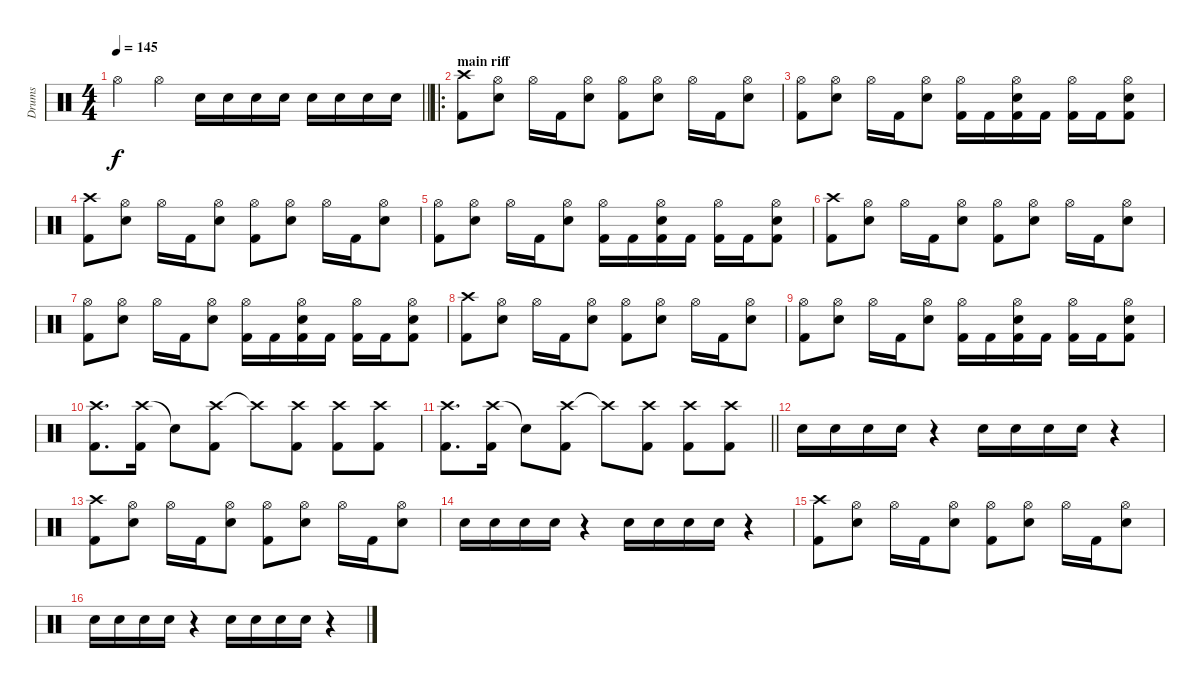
\track ("Drums" "Drums") {instrument percussion}
\staff {score}
\articulation defaults
\ts (4 4)
\tempo 145
\clef neutral
\barLineRight lightlight
\ks c "Hi-Hat (open)".4{dy f} "Hi-Hat (open)".4 "Snare (hit) 2".16 "Snare (hit) 2".16 "Snare (hit) 2".16 "Snare (hit) 2".16 "Snare (hit) 2".16 "Snare (hit) 2".16 "Snare (hit) 2".16 "Snare (hit) 2".16
|
\ro
\section ("" "main riff")
("Crash high (hit)" "Kick (hit) 2").8 ("Hi-Hat (open)" "Snare (hit) 2").8 "Hi-Hat (open)".16 "Kick (hit) 2".16 ("Hi-Hat (open)" "Snare (hit) 2").8 ("Hi-Hat (open)" "Kick (hit) 2").8 ("Hi-Hat (open)" "Snare (hit) 2").8 "Hi-Hat (open)".16 "Kick (hit) 2".16 ("Hi-Hat (open)" "Snare (hit) 2").8 |
("Hi-Hat (open)" "Kick (hit) 2").8 ("Hi-Hat (open)" "Snare (hit) 2").8 "Hi-Hat (open)".16 "Kick (hit) 2".16 ("Hi-Hat (open)" "Snare (hit) 2").8 ("Hi-Hat (open)" "Kick (hit) 2").16 "Kick (hit) 2".16 ("Hi-Hat (open)" "Snare (hit) 2" "Kick (hit) 2").16 "Kick (hit) 2".16 ("Hi-Hat (open)" "Kick (hit) 2").16 "Kick (hit) 2".16 ("Hi-Hat (open)" "Snare (hit) 2" "Kick (hit) 2").8 |
("Crash high (hit)" "Kick (hit) 2").8 ("Hi-Hat (open)" "Snare (hit) 2").8 "Hi-Hat (open)".16 "Kick (hit) 2".16 ("Hi-Hat (open)" "Snare (hit) 2").8 ("Hi-Hat (open)" "Kick (hit) 2").8 ("Hi-Hat (open)" "Snare (hit) 2").8 "Hi-Hat (open)".16 "Kick (hit) 2".16 ("Hi-Hat (open)" "Snare (hit) 2").8 |
("Hi-Hat (open)" "Kick (hit) 2").8 ("Hi-Hat (open)" "Snare (hit) 2").8 "Hi-Hat (open)".16 "Kick (hit) 2".16 ("Hi-Hat (open)" "Snare (hit) 2").8 ("Hi-Hat (open)" "Kick (hit) 2").16 "Kick (hit) 2".16 ("Hi-Hat (open)" "Snare (hit) 2" "Kick (hit) 2").16 "Kick (hit) 2".16 ("Hi-Hat (open)" "Kick (hit) 2").16 "Kick (hit) 2".16 ("Hi-Hat (open)" "Snare (hit) 2" "Kick (hit) 2").8 |
("Crash high (hit)" "Kick (hit) 2").8 ("Hi-Hat (open)" "Snare (hit) 2").8 "Hi-Hat (open)".16 "Kick (hit) 2".16 ("Hi-Hat (open)" "Snare (hit) 2").8 ("Hi-Hat (open)" "Kick (hit) 2").8 ("Hi-Hat (open)" "Snare (hit) 2").8 "Hi-Hat (open)".16 "Kick (hit) 2".16 ("Hi-Hat (open)" "Snare (hit) 2").8 |
("Hi-Hat (open)" "Kick (hit) 2").8 ("Hi-Hat (open)" "Snare (hit) 2").8 "Hi-Hat (open)".16 "Kick (hit) 2".16 ("Hi-Hat (open)" "Snare (hit) 2").8 ("Hi-Hat (open)" "Kick (hit) 2").16 "Kick (hit) 2".16 ("Hi-Hat (open)" "Snare (hit) 2" "Kick (hit) 2").16 "Kick (hit) 2".16 ("Hi-Hat (open)" "Kick (hit) 2").16 "Kick (hit) 2".16 ("Hi-Hat (open)" "Snare (hit) 2" "Kick (hit) 2").8 |
("Crash high (hit)" "Kick (hit) 2").8 ("Hi-Hat (open)" "Snare (hit) 2").8 "Hi-Hat (open)".16 "Kick (hit) 2".16 ("Hi-Hat (open)" "Snare (hit) 2").8 ("Hi-Hat (open)" "Kick (hit) 2").8 ("Hi-Hat (open)" "Snare (hit) 2").8 "Hi-Hat (open)".16 "Kick (hit) 2".16 ("Hi-Hat (open)" "Snare (hit) 2").8 |
("Hi-Hat (open)" "Kick (hit) 2").8 ("Hi-Hat (open)" "Snare (hit) 2").8 "Hi-Hat (open)".16 "Kick (hit) 2".16 ("Hi-Hat (open)" "Snare (hit) 2").8 ("Hi-Hat (open)" "Kick (hit) 2").16 "Kick (hit) 2".16 ("Hi-Hat (open)" "Snare (hit) 2" "Kick (hit) 2").16 "Kick (hit) 2".16 ("Hi-Hat (open)" "Kick (hit) 2").16 "Kick (hit) 2".16 ("Hi-Hat (open)" "Snare (hit) 2" "Kick (hit) 2").8 |
("Crash high (hit)" "Kick (hit) 2").8{d} ("Crash high (hit)" "Kick (hit) 2").16 "Snare (hit)"{t}.8 ("Crash high (hit)" "Kick (hit) 2").8 "Crash high (hit)"{t}.8 ("Crash high (hit)" "Kick (hit) 2").8 ("Crash high (hit)" "Kick (hit) 2").8 ("Crash high (hit)" "Kick (hit) 2").8 |
\barLineRight lightlight
("Crash high (hit)" "Kick (hit) 2").8{d} ("Crash high (hit)" "Kick (hit) 2").16 "Snare (hit)"{t}.8 ("Crash high (hit)" "Kick (hit) 2").8 "Crash high (hit)"{t}.8 ("Crash high (hit)" "Kick (hit) 2").8 ("Crash high (hit)" "Kick (hit) 2").8 ("Crash high (hit)" "Kick (hit) 2").8 |
"Snare (hit) 2".16 "Snare (hit) 2".16 "Snare (hit) 2".16 "Snare (hit) 2".16 r.4 "Snare (hit) 2".16 "Snare (hit) 2".16 "Snare (hit) 2".16 "Snare (hit) 2".16 r.4 |
("Crash high (hit)" "Kick (hit) 2").8 ("Hi-Hat (open)" "Snare (hit) 2").8 "Hi-Hat (open)".16 "Kick (hit) 2".16 ("Hi-Hat (open)" "Snare (hit) 2").8 ("Hi-Hat (open)" "Kick (hit) 2").8 ("Hi-Hat (open)" "Snare (hit) 2").8 "Hi-Hat (open)".16 "Kick (hit) 2".16 ("Hi-Hat (open)" "Snare (hit) 2").8 |
"Snare (hit) 2".16 "Snare (hit) 2".16 "Snare (hit) 2".16 "Snare (hit) 2".16 r.4 "Snare (hit) 2".16 "Snare (hit) 2".16 "Snare (hit) 2".16 "Snare (hit) 2".16 r.4 |
("Crash high (hit)" "Kick (hit) 2").8 ("Hi-Hat (open)" "Snare (hit) 2").8 "Hi-Hat (open)".16 "Kick (hit) 2".16 ("Hi-Hat (open)" "Snare (hit) 2").8 ("Hi-Hat (open)" "Kick (hit) 2").8 ("Hi-Hat (open)" "Snare (hit) 2").8 "Hi-Hat (open)".16 "Kick (hit) 2".16 ("Hi-Hat (open)" "Snare (hit) 2").8 |
"Snare (hit) 2".16 "Snare (hit) 2".16 "Snare (hit) 2".16 "Snare (hit) 2".16 r.4 "Snare (hit) 2".16 "Snare (hit) 2".16 "Snare (hit) 2".16 "Snare (hit) 2".16 r.4
